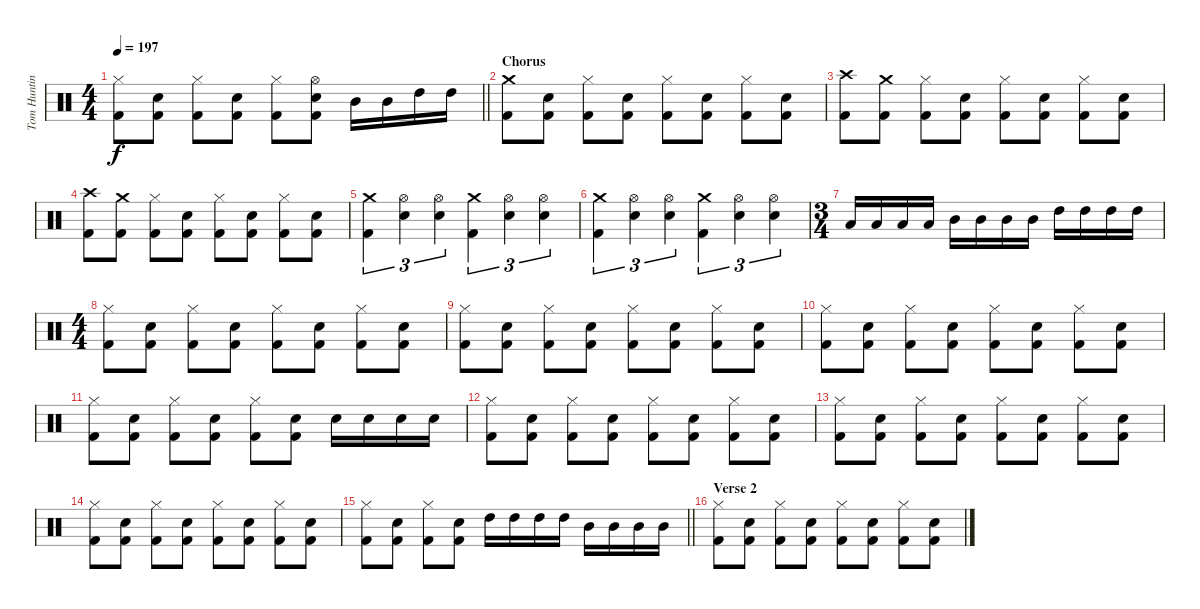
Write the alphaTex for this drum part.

\track ("Tom Hunting" "Tom Huntin") {instrument percussion}
\staff {score}
\articulation defaults
\ts (4 4)
\tempo 197
\clef neutral
\barLineRight lightlight
\ks c
("Hi-Hat (closed)" "Kick (hit) 2").8{dy f} ("Snare (hit) 2" "Kick (hit) 2").8 ("Hi-Hat (closed)" "Kick (hit) 2").8 ("Snare (hit) 2" "Kick (hit) 2").8 ("Hi-Hat (closed)" "Kick (hit) 2").8 ("Hi-Hat (open)" "Snare (hit) 2" "Kick (hit) 2").8 "Mid Tom (hit)".16 "Mid Tom (hit)".16 "High Tom (hit)".16 "High Tom (hit)".16 |
\section ("" "Chorus")
("Crash medium (hit)" "Kick (hit) 2").8 ("Snare (hit) 2" "Kick (hit) 2").8 ("Hi-Hat (closed)" "Kick (hit) 2").8 ("Snare (hit) 2" "Kick (hit) 2").8 ("Hi-Hat (closed)" "Kick (hit) 2").8 ("Snare (hit) 2" "Kick (hit) 2").8 ("Hi-Hat (closed)" "Kick (hit) 2").8 ("Snare (hit) 2" "Kick (hit) 2").8 |
("Crash high (hit)" "Kick (hit) 2").8 ("Crash medium (hit)" "Kick (hit) 2").8 ("Hi-Hat (closed)" "Kick (hit) 2").8 ("Snare (hit) 2" "Kick (hit) 2").8 ("Hi-Hat (closed)" "Kick (hit) 2").8 ("Snare (hit) 2" "Kick (hit) 2").8 ("Hi-Hat (closed)" "Kick (hit) 2").8 ("Snare (hit) 2" "Kick (hit) 2").8 |
("Crash high (hit)" "Kick (hit) 2").8 ("Crash medium (hit)" "Kick (hit) 2").8 ("Hi-Hat (closed)" "Kick (hit) 2").8 ("Snare (hit) 2" "Kick (hit) 2").8 ("Hi-Hat (closed)" "Kick (hit) 2").8 ("Snare (hit) 2" "Kick (hit) 2").8 ("Hi-Hat (closed)" "Kick (hit) 2").8 ("Snare (hit) 2" "Kick (hit) 2").8 |
("Crash medium (hit)" "Kick (hit) 2").4{tu (3 2)} ("Hi-Hat (open)" "Snare (hit) 2").4{tu (3 2)} ("Hi-Hat (open)" "Snare (hit) 2").4{tu (3 2)} ("Crash medium (hit)" "Kick (hit) 2").4{tu (3 2)} ("Hi-Hat (open)" "Snare (hit) 2").4{tu (3 2)} ("Hi-Hat (open)" "Snare (hit) 2").4{tu (3 2)} |
("Crash medium (hit)" "Kick (hit) 2").4{tu (3 2)} ("Hi-Hat (open)" "Snare (hit) 2").4{tu (3 2)} ("Hi-Hat (open)" "Snare (hit) 2").4{tu (3 2)} ("Crash medium (hit)" "Kick (hit) 2").4{tu (3 2)} ("Hi-Hat (open)" "Snare (hit) 2").4{tu (3 2)} ("Hi-Hat (open)" "Snare (hit) 2").4{tu (3 2)} |
\ts (3 4)
"Low Tom (hit)".16 "Low Tom (hit)".16 "Low Tom (hit)".16 "Low Tom (hit)".16 "Mid Tom (hit)".16 "Mid Tom (hit)".16 "Mid Tom (hit)".16 "Mid Tom (hit)".16 "High Tom (hit)".16 "High Tom (hit)".16 "High Tom (hit)".16 "High Tom (hit)".16 |
\ts (4 4)
("Hi-Hat (closed)" "Kick (hit) 2").8 ("Snare (hit) 2" "Kick (hit) 2").8 ("Hi-Hat (closed)" "Kick (hit) 2").8 ("Snare (hit) 2" "Kick (hit) 2").8 ("Hi-Hat (closed)" "Kick (hit) 2").8 ("Snare (hit) 2" "Kick (hit) 2").8 ("Hi-Hat (closed)" "Kick (hit) 2").8 ("Snare (hit) 2" "Kick (hit) 2").8 |
("Hi-Hat (closed)" "Kick (hit) 2").8 ("Snare (hit) 2" "Kick (hit) 2").8 ("Hi-Hat (closed)" "Kick (hit) 2").8 ("Snare (hit) 2" "Kick (hit) 2").8 ("Hi-Hat (closed)" "Kick (hit) 2").8 ("Snare (hit) 2" "Kick (hit) 2").8 ("Hi-Hat (closed)" "Kick (hit) 2").8 ("Snare (hit) 2" "Kick (hit) 2").8 |
("Hi-Hat (closed)" "Kick (hit) 2").8 ("Snare (hit) 2" "Kick (hit) 2").8 ("Hi-Hat (closed)" "Kick (hit) 2").8 ("Snare (hit) 2" "Kick (hit) 2").8 ("Hi-Hat (closed)" "Kick (hit) 2").8 ("Snare (hit) 2" "Kick (hit) 2").8 ("Hi-Hat (closed)" "Kick (hit) 2").8 ("Snare (hit) 2" "Kick (hit) 2").8 |
("Hi-Hat (closed)" "Kick (hit) 2").8 ("Snare (hit) 2" "Kick (hit) 2").8 ("Hi-Hat (closed)" "Kick (hit) 2").8 ("Snare (hit) 2" "Kick (hit) 2").8 ("Hi-Hat (closed)" "Kick (hit) 2").8 ("Snare (hit) 2" "Kick (hit) 2").8 "Snare (hit) 2".16 "Snare (hit) 2".16 "Snare (hit) 2".16 "Snare (hit) 2".16 |
("Hi-Hat (closed)" "Kick (hit) 2").8 ("Snare (hit) 2" "Kick (hit) 2").8 ("Hi-Hat (closed)" "Kick (hit) 2").8 ("Snare (hit) 2" "Kick (hit) 2").8 ("Hi-Hat (closed)" "Kick (hit) 2").8 ("Snare (hit) 2" "Kick (hit) 2").8 ("Hi-Hat (closed)" "Kick (hit) 2").8 ("Snare (hit) 2" "Kick (hit) 2").8 |
("Hi-Hat (closed)" "Kick (hit) 2").8 ("Snare (hit) 2" "Kick (hit) 2").8 ("Hi-Hat (closed)" "Kick (hit) 2").8 ("Snare (hit) 2" "Kick (hit) 2").8 ("Hi-Hat (closed)" "Kick (hit) 2").8 ("Snare (hit) 2" "Kick (hit) 2").8 ("Hi-Hat (closed)" "Kick (hit) 2").8 ("Snare (hit) 2" "Kick (hit) 2").8 |
("Hi-Hat (closed)" "Kick (hit) 2").8 ("Snare (hit) 2" "Kick (hit) 2").8 ("Hi-Hat (closed)" "Kick (hit) 2").8 ("Snare (hit) 2" "Kick (hit) 2").8 ("Hi-Hat (closed)" "Kick (hit) 2").8 ("Snare (hit) 2" "Kick (hit) 2").8 ("Hi-Hat (closed)" "Kick (hit) 2").8 ("Snare (hit) 2" "Kick (hit) 2").8 |
\barLineRight lightlight
("Hi-Hat (closed)" "Kick (hit) 2").8 ("Snare (hit) 2" "Kick (hit) 2").8 ("Hi-Hat (closed)" "Kick (hit) 2").8 ("Snare (hit) 2" "Kick (hit) 2").8 "High Tom (hit)".16 "High Tom (hit)".16 "High Tom (hit)".16 "High Tom (hit)".16 "Mid Tom (hit)".16 "Mid Tom (hit)".16 "Mid Tom (hit)".16 "Mid Tom (hit)".16 |
\section ("" "Verse 2")
("Hi-Hat (closed)" "Kick (hit) 2").8 ("Snare (hit) 2" "Kick (hit) 2").8 ("Hi-Hat (closed)" "Kick (hit) 2").8 ("Snare (hit) 2" "Kick (hit) 2").8 ("Hi-Hat (closed)" "Kick (hit) 2").8 ("Snare (hit) 2" "Kick (hit) 2").8 ("Hi-Hat (closed)" "Kick (hit) 2").8 ("Snare (hit) 2" "Kick (hit) 2").8
